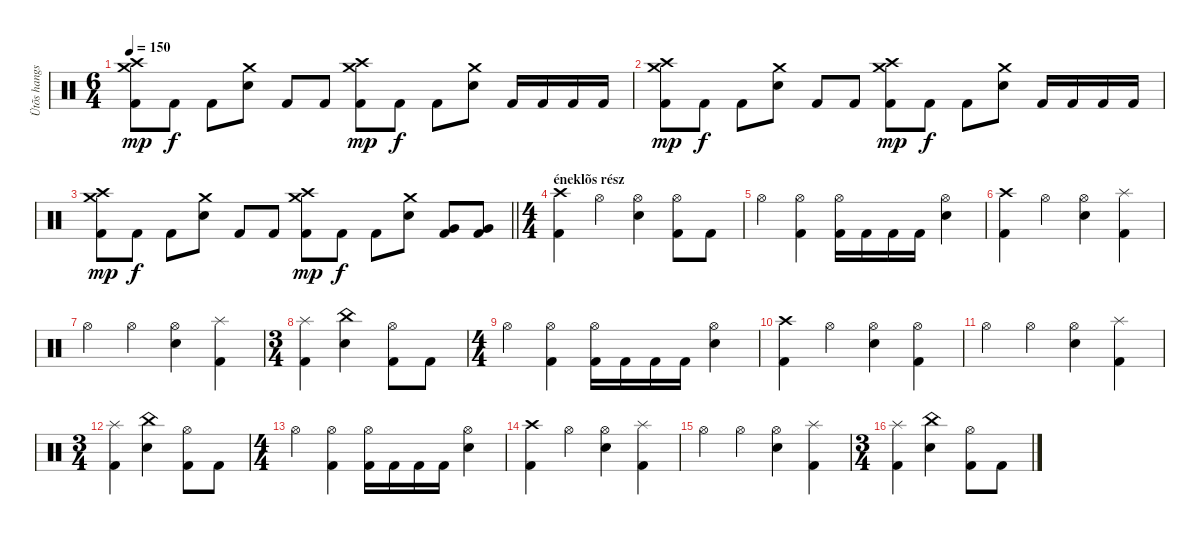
\track ("Ütõs hangszer" "Ütõs hangs") {instrument percussion}
\staff {score}
\articulation defaults
\ts (6 4)
\tempo 150
\clef neutral
\ks c
("Crash high (hit)" "Crash medium (hit)" "Kick (hit) 2").8{dy mp} "Kick (hit) 2".8{dy f} "Kick (hit) 2".8 ("Crash medium (hit)" "Electric Snare (hit)").8 "Kick (hit) 2".8 "Kick (hit) 2".8 ("Crash high (hit)" "Crash medium (hit)" "Kick (hit) 2").8{dy mp} "Kick (hit) 2".8{dy f} "Kick (hit) 2".8 ("Crash medium (hit)" "Electric Snare (hit)").8 "Kick (hit) 2".16 "Kick (hit) 2".16 "Kick (hit) 2".16 "Kick (hit) 2".16 |
("Crash high (hit)" "Crash medium (hit)" "Kick (hit) 2").8{dy mp} "Kick (hit) 2".8{dy f} "Kick (hit) 2".8 ("Crash medium (hit)" "Electric Snare (hit)").8 "Kick (hit) 2".8 "Kick (hit) 2".8 ("Crash high (hit)" "Crash medium (hit)" "Kick (hit) 2").8{dy mp} "Kick (hit) 2".8{dy f} "Kick (hit) 2".8 ("Crash medium (hit)" "Electric Snare (hit)").8 "Kick (hit) 2".16 "Kick (hit) 2".16 "Kick (hit) 2".16 "Kick (hit) 2".16 |
\barLineRight lightlight
("Crash high (hit)" "Crash medium (hit)" "Kick (hit) 2").8{dy mp} "Kick (hit) 2".8{dy f} "Kick (hit) 2".8 ("Crash medium (hit)" "Electric Snare (hit)").8 "Kick (hit) 2".8 "Kick (hit) 2".8 ("Crash high (hit)" "Crash medium (hit)" "Kick (hit) 2").8{dy mp} "Kick (hit) 2".8{dy f} "Kick (hit) 2".8 ("Crash medium (hit)" "Electric Snare (hit)").8 ("Very Low Tom (hit)" "Kick (hit) 2").8 ("Very Low Tom (hit)" "Kick (hit) 2").8 |
\ts (4 4)
\section ("" "éneklõs rész")
("Crash high (hit)" "Kick (hit) 2").4 "Hi-Hat (open)".4 ("Hi-Hat (open)" "Electric Snare (hit)").4 ("Hi-Hat (open)" "Kick (hit) 2").8 "Kick (hit) 2".8 |
"Hi-Hat (open)".4 ("Hi-Hat (open)" "Kick (hit) 2").4 ("Hi-Hat (open)" "Kick (hit) 2").16 "Kick (hit) 2".16 "Kick (hit) 2".16 "Kick (hit) 2".16 ("Hi-Hat (open)" "Electric Snare (hit)").4 |
("Crash high (hit)" "Kick (hit) 2").4 "Hi-Hat (open)".4 ("Hi-Hat (open)" "Electric Snare (hit)").4 ("Splash (hit)" "Kick (hit) 2").4 |
"Hi-Hat (open)".4 "Hi-Hat (open)".4 ("Hi-Hat (open)" "Snare (hit) 2").4 ("Splash (hit)" "Kick (hit) 2").4 |
\ts (3 4)
("Splash (hit)" "Kick (hit) 2").4 ("China (hit)" "Electric Snare (hit)").4 ("Hi-Hat (open)" "Kick (hit) 2").8 "Kick (hit) 2".8 |
\ts (4 4)
"Hi-Hat (open)".4 ("Hi-Hat (open)" "Kick (hit) 2").4 ("Hi-Hat (open)" "Kick (hit) 2").16 "Kick (hit) 2".16 "Kick (hit) 2".16 "Kick (hit) 2".16 ("Hi-Hat (open)" "Electric Snare (hit)").4 |
("Crash high (hit)" "Kick (hit) 2").4 "Hi-Hat (open)".4 ("Hi-Hat (open)" "Electric Snare (hit)").4 ("Hi-Hat (open)" "Kick (hit) 2").4 |
"Hi-Hat (open)".4 "Hi-Hat (open)".4 ("Hi-Hat (open)" "Electric Snare (hit)").4 ("Splash (hit)" "Kick (hit) 2").4 |
\ts (3 4)
("Splash (hit)" "Kick (hit) 2").4 ("China (hit)" "Electric Snare (hit)").4 ("Hi-Hat (open)" "Kick (hit) 2").8 "Kick (hit) 2".8 |
\ts (4 4)
"Hi-Hat (open)".4 ("Hi-Hat (open)" "Kick (hit) 2").4 ("Hi-Hat (open)" "Kick (hit) 2").16 "Kick (hit) 2".16 "Kick (hit) 2".16 "Kick (hit) 2".16 ("Hi-Hat (open)" "Electric Snare (hit)").4 |
("Crash high (hit)" "Kick (hit) 2").4 "Hi-Hat (open)".4 ("Hi-Hat (open)" "Electric Snare (hit)").4 ("Splash (hit)" "Kick (hit) 2").4 |
"Hi-Hat (open)".4 "Hi-Hat (open)".4 ("Hi-Hat (open)" "Electric Snare (hit)").4 ("Splash (hit)" "Kick (hit) 2").4 |
\ts (3 4)
("Splash (hit)" "Kick (hit) 2").4 ("China (hit)" "Electric Snare (hit)").4 ("Hi-Hat (open)" "Kick (hit) 2").8 "Kick (hit) 2".8
